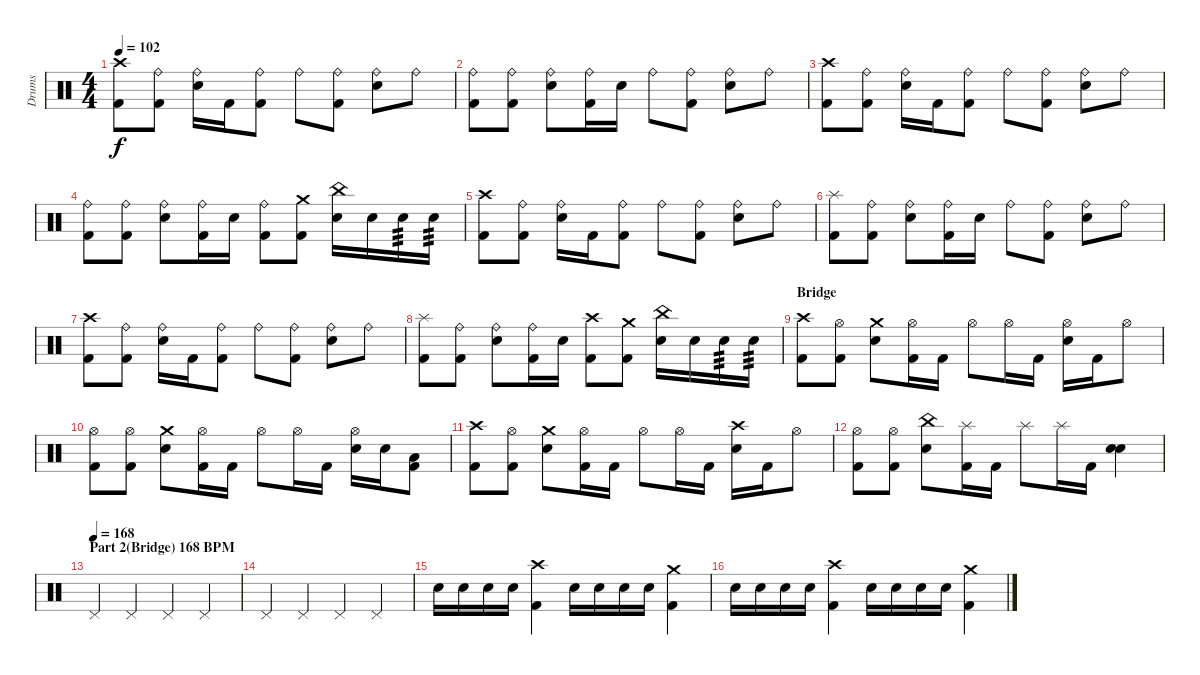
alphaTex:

\track ("Drums" "Drums") {instrument percussion}
\staff {score}
\articulation defaults
\ts (4 4)
\tempo 102
\clef neutral
\ks c
("Crash high (hit)" "Kick (hit) 2").8{dy f volume 13} ("Ride (bell)" "Kick (hit) 2").8 ("Ride (bell)" "Snare (hit) 2").16 "Kick (hit) 2".16 ("Ride (bell)" "Kick (hit) 2").8 "Ride (bell)".8 ("Ride (bell)" "Kick (hit) 2").8 ("Ride (bell)" "Snare (hit) 2").8 "Ride (bell)".8 |
("Ride (bell)" "Kick (hit) 2").8 ("Ride (bell)" "Kick (hit) 2").8 ("Ride (bell)" "Snare (hit) 2").8 ("Ride (bell)" "Kick (hit) 2").16 "Snare (hit) 2".16 "Ride (bell)".8 ("Ride (bell)" "Kick (hit) 2").8 ("Ride (bell)" "Snare (hit) 2").8 "Ride (bell)".8 |
("Crash high (hit)" "Kick (hit) 2").8 ("Ride (bell)" "Kick (hit) 2").8 ("Ride (bell)" "Snare (hit) 2").16 "Kick (hit) 2".16 ("Ride (bell)" "Kick (hit) 2").8 "Ride (bell)".8 ("Ride (bell)" "Kick (hit) 2").8 ("Ride (bell)" "Snare (hit) 2").8 "Ride (bell)".8 |
("Ride (bell)" "Kick (hit) 2").8 ("Ride (bell)" "Kick (hit) 2").8 ("Ride (bell)" "Snare (hit) 2").8 ("Ride (bell)" "Kick (hit) 2").16 "Snare (hit) 2".16 ("Ride (bell)" "Kick (hit) 2").8 ("Crash medium (hit)" "Kick (hit) 2").8 ("China (hit)" "Snare (hit) 2").16 "Snare (hit) 2".16 "Snare (hit) 2".16{tp 3} "Snare (hit) 2".16{tp 3} |
("Crash high (hit)" "Kick (hit) 2").8{volume 13} ("Ride (bell)" "Kick (hit) 2").8 ("Ride (bell)" "Snare (hit) 2").16 "Kick (hit) 2".16 ("Ride (bell)" "Kick (hit) 2").8 "Ride (bell)".8 ("Ride (bell)" "Kick (hit) 2").8 ("Ride (bell)" "Snare (hit) 2").8 "Ride (bell)".8 |
("Splash (hit)" "Kick (hit) 2").8 ("Ride (bell)" "Kick (hit) 2").8 ("Ride (bell)" "Snare (hit) 2").8 ("Ride (bell)" "Kick (hit) 2").16 "Snare (hit) 2".16 "Ride (bell)".8 ("Ride (bell)" "Kick (hit) 2").8 ("Ride (bell)" "Snare (hit) 2").8 "Ride (bell)".8 |
("Crash high (hit)" "Kick (hit) 2").8 ("Ride (bell)" "Kick (hit) 2").8 ("Ride (bell)" "Snare (hit) 2").16 "Kick (hit) 2".16 ("Ride (bell)" "Kick (hit) 2").8 "Ride (bell)".8 ("Ride (bell)" "Kick (hit) 2").8 ("Ride (bell)" "Snare (hit) 2").8 "Ride (bell)".8 |
("Splash (hit)" "Kick (hit) 2").8 ("Ride (bell)" "Kick (hit) 2").8 ("Ride (bell)" "Snare (hit) 2").8 ("Ride (bell)" "Kick (hit) 2").16 "Snare (hit) 2".16 ("Crash high (hit)" "Kick (hit) 2").8 ("Crash medium (hit)" "Kick (hit) 2").8 ("China (hit)" "Snare (hit) 2").16 "Snare (hit) 2".16 "Snare (hit) 2".16{tp 3} "Snare (hit) 2".16{tp 3} |
\section ("" "Bridge")
("Crash high (hit)" "Kick (hit) 2").8 ("Hi-Hat (open)" "Kick (hit) 2").8 ("Crash medium (hit)" "Snare (hit) 2").8 ("Hi-Hat (open)" "Kick (hit) 2").16 "Kick (hit) 2".16 "Hi-Hat (open)".8 "Hi-Hat (open)".16 "Kick (hit) 2".16 ("Hi-Hat (open)" "Snare (hit) 2").16 "Kick (hit) 2".16 "Hi-Hat (open)".8 |
("Hi-Hat (open)" "Kick (hit) 2").8 ("Hi-Hat (open)" "Kick (hit) 2").8 ("Crash medium (hit)" "Snare (hit) 2").8 ("Hi-Hat (open)" "Kick (hit) 2").16 "Kick (hit) 2".16 "Hi-Hat (open)".8 "Hi-Hat (open)".16 "Kick (hit) 2".16 ("Hi-Hat (open)" "Snare (hit) 2").16 "Snare (hit) 2".16 ("Low Tom (hit)" "Kick (hit) 2").8 |
("Crash high (hit)" "Kick (hit) 2").8 ("Hi-Hat (open)" "Kick (hit) 2").8 ("Crash medium (hit)" "Snare (hit) 2").8 ("Hi-Hat (open)" "Kick (hit) 2").16 "Kick (hit) 2".16 "Hi-Hat (open)".8 "Hi-Hat (open)".16 "Kick (hit) 2".16 ("Crash high (hit)" "Snare (hit) 2").16 "Kick (hit) 2".16 "Hi-Hat (open)".8 |
("Hi-Hat (open)" "Kick (hit) 2").8 ("Hi-Hat (open)" "Kick (hit) 2").8 ("China (hit)" "Snare (hit) 2").8 ("Splash (hit)" "Kick (hit) 2").16 "Kick (hit) 2".16 "Splash (hit)".8 "Splash (hit)".16 "Kick (hit) 2".16 ("Snare (hit) 2" "Snare (hit) 2").4 |
\section ("" "Part 2(Bridge) 168 BPM")
\tempo (168)
"Pedal Hi-Hat (hit)".4 "Pedal Hi-Hat (hit)".4 "Pedal Hi-Hat (hit)".4 "Pedal Hi-Hat (hit)".4 |
"Pedal Hi-Hat (hit)".4 "Pedal Hi-Hat (hit)".4 "Pedal Hi-Hat (hit)".4 "Pedal Hi-Hat (hit)".4 |
"Snare (hit) 2".16 "Snare (hit) 2".16 "Snare (hit) 2".16 "Snare (hit) 2".16 ("Crash high (hit)" "Kick (hit) 2").4 "Snare (hit) 2".16 "Snare (hit) 2".16 "Snare (hit) 2".16 "Snare (hit) 2".16 ("Crash medium (hit)" "Kick (hit) 2").4 |
"Snare (hit) 2".16 "Snare (hit) 2".16 "Snare (hit) 2".16 "Snare (hit) 2".16 ("Crash high (hit)" "Kick (hit) 2").4 "Snare (hit) 2".16 "Snare (hit) 2".16 "Snare (hit) 2".16 "Snare (hit) 2".16 ("Crash medium (hit)" "Kick (hit) 2").4
